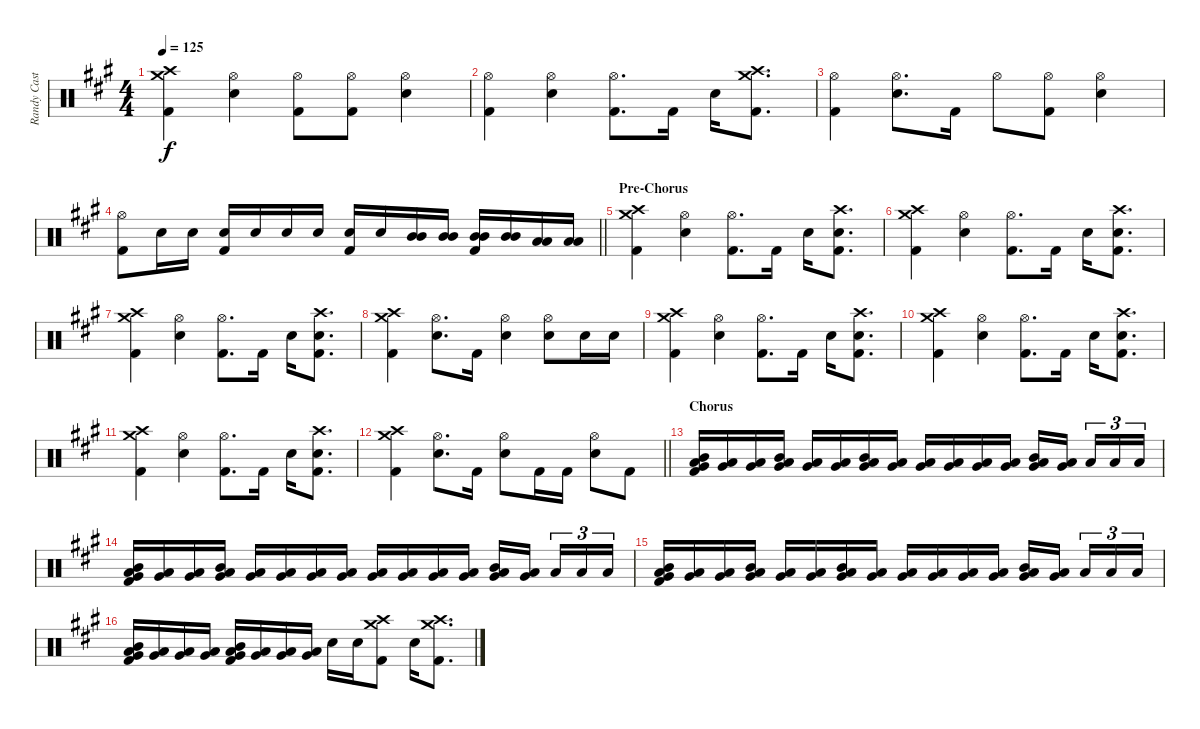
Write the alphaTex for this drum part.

\track ("Randy Castillo - Drums" "Randy Cast") {instrument percussion}
\staff {score}
\articulation defaults
\ts (4 4)
\tempo 125
\clef neutral
\ks a
("Crash medium (hit)" "Crash high (hit)" "Kick (hit) 2").4{dy f} ("Hi-Hat (open)" "Snare (hit) 2").4 ("Hi-Hat (open)" "Kick (hit) 2").8 ("Hi-Hat (open)" "Kick (hit) 2").8 ("Hi-Hat (open)" "Snare (hit) 2").4 |
("Hi-Hat (open)" "Kick (hit) 2").4 ("Hi-Hat (open)" "Snare (hit) 2").4 ("Hi-Hat (open)" "Kick (hit) 2").8{d} "Kick (hit) 2".16 "Snare (hit) 2".16 ("Crash medium (hit)" "Crash high (hit)" "Kick (hit) 2").8{d} |
("Hi-Hat (open)" "Kick (hit) 2").4 ("Hi-Hat (open)" "Snare (hit) 2").8{d} "Kick (hit) 2".16 "Hi-Hat (open)".8 ("Hi-Hat (open)" "Kick (hit) 2").8 ("Hi-Hat (open)" "Snare (hit) 2").4 |
\barLineRight lightlight
("Hi-Hat (open)" "Kick (hit) 2").8 "Snare (hit) 2".16 "Snare (hit) 2".16 ("Snare (hit) 2" "Kick (hit) 2").16 "Snare (hit) 2".16 "Snare (hit) 2".16 "Snare (hit) 2".16 ("Snare (hit) 2" "Kick (hit) 2").16 "Snare (hit) 2".16 ("Mid Tom (hit)" "Mid Tom (hit)").16 ("Mid Tom (hit)" "Mid Tom (hit)").16 ("Mid Tom (hit)" "Mid Tom (hit)" "Kick (hit) 2").16 ("Mid Tom (hit)" "Mid Tom (hit)").16 ("Low Tom (hit)" "Low Tom (hit)").16 ("Low Tom (hit)" "Low Tom (hit)").16 |
\section ("" "Pre-Chorus")
("Crash medium (hit)" "Crash high (hit)" "Kick (hit) 2").4 ("Hi-Hat (open)" "Snare (hit) 2").4 ("Hi-Hat (open)" "Kick (hit) 2").8{d} "Kick (hit) 2".16 "Snare (hit) 2".16 ("Snare (hit)" "Crash high (hit)" "Kick (hit) 2").8{d} |
("Crash medium (hit)" "Crash high (hit)" "Kick (hit) 2").4 ("Hi-Hat (open)" "Snare (hit) 2").4 ("Hi-Hat (open)" "Kick (hit) 2").8{d} "Kick (hit) 2".16 "Snare (hit) 2".16 ("Snare (hit)" "Crash high (hit)" "Kick (hit) 2").8{d} |
("Crash medium (hit)" "Crash high (hit)" "Kick (hit) 2").4 ("Hi-Hat (open)" "Snare (hit) 2").4 ("Hi-Hat (open)" "Kick (hit) 2").8{d} "Kick (hit) 2".16 "Snare (hit) 2".16 ("Snare (hit)" "Crash high (hit)" "Kick (hit) 2").8{d} |
("Crash medium (hit)" "Crash high (hit)" "Kick (hit) 2").4 ("Hi-Hat (open)" "Snare (hit) 2").8{d} "Kick (hit) 2".16 ("Hi-Hat (open)" "Snare (hit) 2").4 ("Hi-Hat (open)" "Snare (hit) 2").8 "Snare (hit) 2".16 "Snare (hit) 2".16 |
("Crash medium (hit)" "Crash high (hit)" "Kick (hit) 2").4 ("Hi-Hat (open)" "Snare (hit) 2").4 ("Hi-Hat (open)" "Kick (hit) 2").8{d} "Kick (hit) 2".16 "Snare (hit) 2".16 ("Snare (hit)" "Crash high (hit)" "Kick (hit) 2").8{d} |
("Crash medium (hit)" "Crash high (hit)" "Kick (hit) 2").4 ("Hi-Hat (open)" "Snare (hit) 2").4 ("Hi-Hat (open)" "Kick (hit) 2").8{d} "Kick (hit) 2".16 "Snare (hit) 2".16 ("Snare (hit)" "Crash high (hit)" "Kick (hit) 2").8{d} |
("Crash medium (hit)" "Crash high (hit)" "Kick (hit) 2").4 ("Hi-Hat (open)" "Snare (hit) 2").4 ("Hi-Hat (open)" "Kick (hit) 2").8{d} "Kick (hit) 2".16 "Snare (hit) 2".16 ("Snare (hit)" "Crash high (hit)" "Kick (hit) 2").8{d} |
\barLineRight lightlight
("Crash medium (hit)" "Crash high (hit)" "Kick (hit) 2").4 ("Hi-Hat (open)" "Snare (hit) 2").8{d} "Kick (hit) 2".16 ("Hi-Hat (open)" "Snare (hit) 2").8 "Kick (hit) 2".16 "Kick (hit) 2".16 ("Hi-Hat (open)" "Snare (hit) 2").8 "Kick (hit) 2".8 |
\section ("" "Chorus")
("Mid Tom (hit)" "Low Tom (hit)" "Very Low Tom (hit)" "Kick (hit) 2").16 ("Low Tom (hit)" "Very Low Tom (hit)").16 ("Low Tom (hit)" "Very Low Tom (hit)").16 ("Mid Tom (hit)" "Low Tom (hit)" "Very Low Tom (hit)").16 ("Low Tom (hit)" "Very Low Tom (hit)").16 ("Low Tom (hit)" "Very Low Tom (hit)").16 ("Mid Tom (hit)" "Low Tom (hit)" "Very Low Tom (hit)").16 ("Low Tom (hit)" "Very Low Tom (hit)").16 ("Low Tom (hit)" "Very Low Tom (hit)").16 ("Low Tom (hit)" "Very Low Tom (hit)").16 ("Low Tom (hit)" "Very Low Tom (hit)").16 ("Low Tom (hit)" "Very Low Tom (hit)").16 ("Mid Tom (hit)" "Low Tom (hit)" "Very Low Tom (hit)").16 ("Low Tom (hit)" "Very Low Tom (hit)").16{beam splitsecondary} "Low Tom (hit)".16{tu (3 2)} "Low Tom (hit)".16{tu (3 2)} "Low Tom (hit)".16{tu (3 2)} |
("Mid Tom (hit)" "Low Tom (hit)" "Very Low Tom (hit)" "Kick (hit) 2").16 ("Low Tom (hit)" "Very Low Tom (hit)").16 ("Low Tom (hit)" "Very Low Tom (hit)").16 ("Mid Tom (hit)" "Low Tom (hit)" "Very Low Tom (hit)").16 ("Low Tom (hit)" "Very Low Tom (hit)").16 ("Low Tom (hit)" "Very Low Tom (hit)").16 ("Low Tom (hit)" "Very Low Tom (hit)").16 ("Low Tom (hit)" "Very Low Tom (hit)").16 ("Low Tom (hit)" "Very Low Tom (hit)").16 ("Low Tom (hit)" "Very Low Tom (hit)").16 ("Low Tom (hit)" "Very Low Tom (hit)").16 ("Low Tom (hit)" "Very Low Tom (hit)").16 ("Mid Tom (hit)" "Low Tom (hit)" "Very Low Tom (hit)").16 ("Low Tom (hit)" "Very Low Tom (hit)").16{beam splitsecondary} "Low Tom (hit)".16{tu (3 2)} "Low Tom (hit)".16{tu (3 2)} "Low Tom (hit)".16{tu (3 2)} |
("Mid Tom (hit)" "Low Tom (hit)" "Very Low Tom (hit)" "Kick (hit) 2").16 ("Low Tom (hit)" "Very Low Tom (hit)").16 ("Low Tom (hit)" "Very Low Tom (hit)").16 ("Mid Tom (hit)" "Low Tom (hit)" "Very Low Tom (hit)").16 ("Low Tom (hit)" "Very Low Tom (hit)").16 ("Low Tom (hit)" "Very Low Tom (hit)").16 ("Mid Tom (hit)" "Low Tom (hit)" "Very Low Tom (hit)").16 ("Low Tom (hit)" "Very Low Tom (hit)").16 ("Low Tom (hit)" "Very Low Tom (hit)").16 ("Low Tom (hit)" "Very Low Tom (hit)").16 ("Low Tom (hit)" "Very Low Tom (hit)").16 ("Low Tom (hit)" "Very Low Tom (hit)").16 ("Mid Tom (hit)" "Low Tom (hit)" "Very Low Tom (hit)").16 ("Low Tom (hit)" "Very Low Tom (hit)").16{beam splitsecondary} "Low Tom (hit)".16{tu (3 2)} "Low Tom (hit)".16{tu (3 2)} "Low Tom (hit)".16{tu (3 2)} |
("Mid Tom (hit)" "Low Tom (hit)" "Very Low Tom (hit)" "Kick (hit) 2").16 ("Low Tom (hit)" "Very Low Tom (hit)").16 ("Low Tom (hit)" "Very Low Tom (hit)").16 ("Low Tom (hit)" "Very Low Tom (hit)").16 ("Mid Tom (hit)" "Low Tom (hit)" "Very Low Tom (hit)" "Kick (hit) 2").16 ("Low Tom (hit)" "Very Low Tom (hit)").16 ("Low Tom (hit)" "Very Low Tom (hit)").16 ("Low Tom (hit)" "Very Low Tom (hit)").16 "Snare (hit) 2".16 "Snare (hit) 2".16 ("Crash medium (hit)" "Crash high (hit)" "Kick (hit) 2").8 "Snare (hit) 2".16 ("Crash medium (hit)" "Crash high (hit)" "Kick (hit) 2").8{d}
